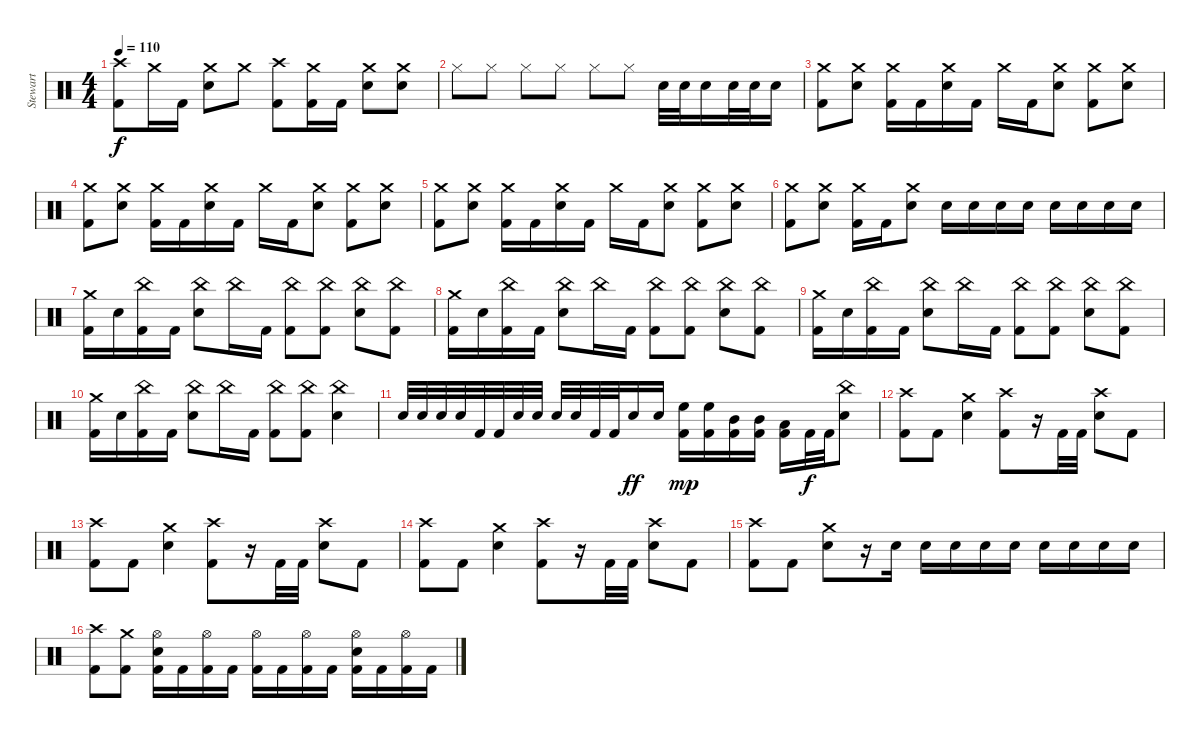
\track ("Stewart" "Stewart") {instrument percussion}
\staff {score}
\articulation defaults
\ts (4 4)
\tempo 110
\clef neutral
\ks c
("Crash high (hit)" "Kick (hit) 2").8{dy f} "Crash medium (hit)".16 "Kick (hit) 2".16 ("Crash medium (hit)" "Electric Snare (hit)").8 "Crash medium (hit)".8 ("Crash high (hit)" "Kick (hit) 2").8 ("Crash medium (hit)" "Kick (hit) 2").16 "Kick (hit) 2".16 ("Crash medium (hit)" "Electric Snare (hit)").8 ("Crash medium (hit)" "Electric Snare (hit)").8 |
"Hi-Hat (closed)".8 "Hi-Hat (closed)".8 "Hi-Hat (closed)".8 "Hi-Hat (closed)".8 "Hi-Hat (closed)".8 "Hi-Hat (closed)".8 "Electric Snare (hit)".32 "Electric Snare (hit)".32 "Electric Snare (hit)".16 "Electric Snare (hit)".32 "Electric Snare (hit)".32 "Electric Snare (hit)".16 |
("Crash medium (hit)" "Kick (hit) 2").8 ("Crash medium (hit)" "Electric Snare (hit)").8 ("Crash medium (hit)" "Kick (hit) 2").16 "Kick (hit) 2".16 ("Crash medium (hit)" "Electric Snare (hit)").16 "Kick (hit) 2".16 "Crash medium (hit)".16 "Kick (hit) 2".16 ("Crash medium (hit)" "Electric Snare (hit)").8 ("Crash medium (hit)" "Kick (hit) 2").8 ("Crash medium (hit)" "Electric Snare (hit)").8 |
("Crash medium (hit)" "Kick (hit) 2").8 ("Crash medium (hit)" "Electric Snare (hit)").8 ("Crash medium (hit)" "Kick (hit) 2").16 "Kick (hit) 2".16 ("Crash medium (hit)" "Electric Snare (hit)").16 "Kick (hit) 2".16 "Crash medium (hit)".16 "Kick (hit) 2".16 ("Crash medium (hit)" "Electric Snare (hit)").8 ("Crash medium (hit)" "Kick (hit) 2").8 ("Crash medium (hit)" "Electric Snare (hit)").8 |
("Crash medium (hit)" "Kick (hit) 2").8 ("Crash medium (hit)" "Electric Snare (hit)").8 ("Crash medium (hit)" "Kick (hit) 2").16 "Kick (hit) 2".16 ("Crash medium (hit)" "Electric Snare (hit)").16 "Kick (hit) 2".16 "Crash medium (hit)".16 "Kick (hit) 2".16 ("Crash medium (hit)" "Electric Snare (hit)").8 ("Crash medium (hit)" "Kick (hit) 2").8 ("Crash medium (hit)" "Electric Snare (hit)").8 |
("Crash medium (hit)" "Kick (hit) 2").8 ("Crash medium (hit)" "Electric Snare (hit)").8 ("Crash medium (hit)" "Kick (hit) 2").16 "Kick (hit) 2".16 ("Crash medium (hit)" "Electric Snare (hit)").8 "Electric Snare (hit)".16 "Electric Snare (hit)".16 "Electric Snare (hit)".16 "Electric Snare (hit)".16 "Electric Snare (hit)".16 "Electric Snare (hit)".16 "Electric Snare (hit)".16 "Electric Snare (hit)".16 |
("Crash medium (hit)" "Kick (hit) 2").16 "Electric Snare (hit)".16 ("China (hit)" "Kick (hit) 2").16 "Kick (hit) 2".16 ("China (hit)" "Electric Snare (hit)").8 "China (hit)".16 "Kick (hit) 2".16 ("China (hit)" "Kick (hit) 2").8 ("China (hit)" "Kick (hit) 2").8 ("China (hit)" "Electric Snare (hit)").8 ("China (hit)" "Kick (hit) 2").8 |
("Crash medium (hit)" "Kick (hit) 2").16 "Electric Snare (hit)".16 ("China (hit)" "Kick (hit) 2").16 "Kick (hit) 2".16 ("China (hit)" "Electric Snare (hit)").8 "China (hit)".16 "Kick (hit) 2".16 ("China (hit)" "Kick (hit) 2").8 ("China (hit)" "Kick (hit) 2").8 ("China (hit)" "Electric Snare (hit)").8 ("China (hit)" "Kick (hit) 2").8 |
("Crash medium (hit)" "Kick (hit) 2").16 "Electric Snare (hit)".16 ("China (hit)" "Kick (hit) 2").16 "Kick (hit) 2".16 ("China (hit)" "Electric Snare (hit)").8 "China (hit)".16 "Kick (hit) 2".16 ("China (hit)" "Kick (hit) 2").8 ("China (hit)" "Kick (hit) 2").8 ("China (hit)" "Electric Snare (hit)").8 ("China (hit)" "Kick (hit) 2").8 |
("Crash medium (hit)" "Kick (hit) 2").16 "Electric Snare (hit)".16 ("China (hit)" "Kick (hit) 2").16 "Kick (hit) 2".16 ("China (hit)" "Electric Snare (hit)").8 "China (hit)".16 "Kick (hit) 2".16 ("China (hit)" "Kick (hit) 2").8 ("China (hit)" "Kick (hit) 2").8 ("China (hit)" "Electric Snare (hit)").4 |
"Snare (hit) 2".32 "Snare (hit) 2".32 "Snare (hit) 2".32 "Snare (hit) 2".32 "Kick (hit) 2".32 "Kick (hit) 2".32 "Snare (hit) 2".32 "Snare (hit) 2".32 "Snare (hit) 2".32 "Snare (hit) 2".32 "Kick (hit) 2".32 "Kick (hit) 2".32 "Snare (hit) 2".16{dy ff} "Snare (hit) 2".16 ("High Floor Tom (hit)" "Kick (hit) 2").16{dy mp} ("High Floor Tom (hit)" "Kick (hit) 2").16 ("Mid Tom (hit)" "Kick (hit) 2").16 ("Mid Tom (hit)" "Kick (hit) 2").16 ("Low Tom (hit)" "Kick (hit) 2").16 "Kick (hit) 2".32{dy f} "Kick (hit) 2".32 ("Snare (hit) 2" "China (hit)").8 |
("Kick (hit) 2" "Crash high (hit)").8 "Kick (hit) 2".8 ("Snare (hit) 2" "Crash medium (hit)").4 ("Kick (hit) 2" "Crash high (hit)").8 r.16 "Kick (hit) 2".32 "Kick (hit) 2".32 ("Snare (hit) 2" "Crash high (hit)").8 "Kick (hit) 2".8 |
("Kick (hit) 2" "Crash high (hit)").8 "Kick (hit) 2".8 ("Snare (hit) 2" "Crash medium (hit)").4 ("Kick (hit) 2" "Crash high (hit)").8 r.16 "Kick (hit) 2".32 "Kick (hit) 2".32 ("Snare (hit) 2" "Crash high (hit)").8 "Kick (hit) 2".8 |
("Kick (hit) 2" "Crash high (hit)").8 "Kick (hit) 2".8 ("Snare (hit) 2" "Crash medium (hit)").4 ("Kick (hit) 2" "Crash high (hit)").8 r.16 "Kick (hit) 2".32 "Kick (hit) 2".32 ("Snare (hit) 2" "Crash high (hit)").8 "Kick (hit) 2".8 |
("Kick (hit) 2" "Crash high (hit)").8 "Kick (hit) 2".8 ("Snare (hit) 2" "Crash medium (hit)").8 r.16 "Snare (hit) 2".16 "Snare (hit) 2".16 "Snare (hit) 2".16 "Snare (hit) 2".16 "Snare (hit) 2".16 "Snare (hit) 2".16 "Snare (hit) 2".16 "Snare (hit) 2".16 "Snare (hit) 2".16 |
("Kick (hit) 2" "Crash high (hit)").8 ("Kick (hit) 2" "Crash medium (hit)").8 ("Kick (hit) 2" "Snare (hit) 2" "Hi-Hat (open)").16 "Kick (hit) 2".16 ("Kick (hit) 2" "Hi-Hat (open)").16 "Kick (hit) 2".16 ("Kick (hit) 2" "Hi-Hat (open)").16 "Kick (hit) 2".16 ("Kick (hit) 2" "Hi-Hat (open)").16 "Kick (hit) 2".16 ("Kick (hit) 2" "Snare (hit) 2" "Hi-Hat (open)").16 "Kick (hit) 2".16 ("Kick (hit) 2" "Hi-Hat (open)").16 "Kick (hit) 2".16
